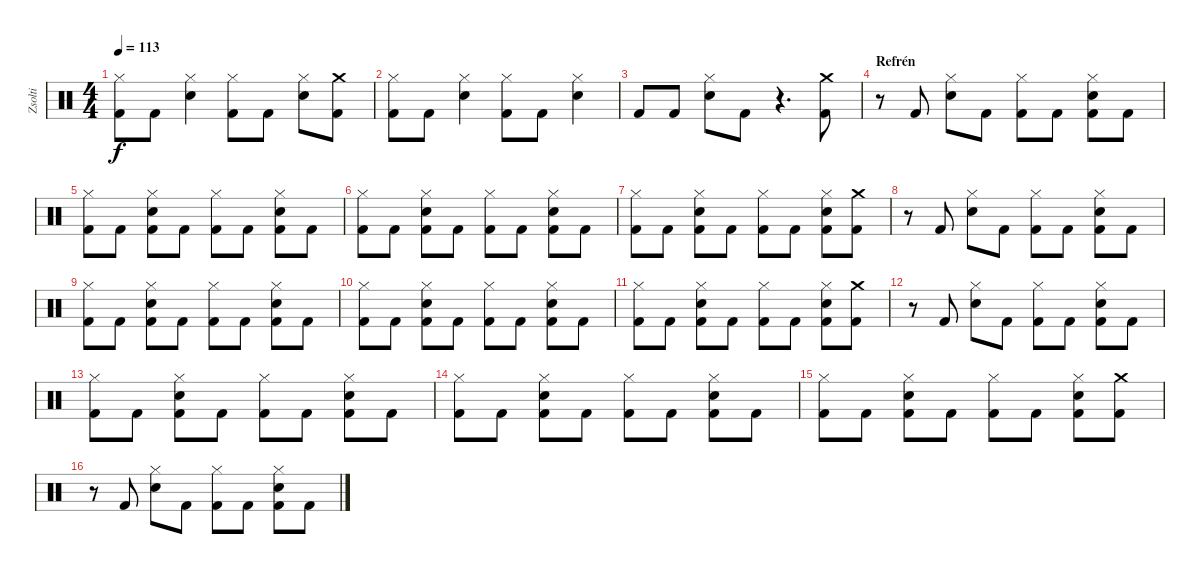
\track ("Zsolti" "Zsolti") {instrument percussion}
\staff {score}
\articulation defaults
\ts (4 4)
\tempo 113
\clef neutral
\ks c
("Hi-Hat (closed)" "Kick (hit) 2").8{dy f} "Kick (hit) 2".8 ("Hi-Hat (closed)" "Snare (hit) 2").4 ("Hi-Hat (closed)" "Kick (hit) 2").8 "Kick (hit) 2".8 ("Hi-Hat (closed)" "Snare (hit) 2").8 ("Crash medium (hit)" "Kick (hit) 2").8 |
("Hi-Hat (closed)" "Kick (hit) 2").8 "Kick (hit) 2".8 ("Hi-Hat (closed)" "Snare (hit) 2").4 ("Hi-Hat (closed)" "Kick (hit) 2").8 "Kick (hit) 2".8 ("Hi-Hat (closed)" "Snare (hit) 2").4 |
"Kick (hit) 2".8 "Kick (hit) 2".8 ("Hi-Hat (closed)" "Snare (hit) 2").8 "Kick (hit) 2".8 r.4{d} ("Crash medium (hit)" "Kick (hit) 2").8 |
\section ("" "Refrén")
r.8 "Kick (hit) 2".8 ("Hi-Hat (closed)" "Snare (hit) 2").8 "Kick (hit) 2".8 ("Hi-Hat (closed)" "Kick (hit) 2").8 "Kick (hit) 2".8 ("Hi-Hat (closed)" "Snare (hit) 2" "Kick (hit) 2").8 "Kick (hit) 2".8 |
("Hi-Hat (closed)" "Kick (hit) 2").8 "Kick (hit) 2".8 ("Hi-Hat (closed)" "Snare (hit) 2" "Kick (hit) 2").8 "Kick (hit) 2".8 ("Hi-Hat (closed)" "Kick (hit) 2").8 "Kick (hit) 2".8 ("Hi-Hat (closed)" "Snare (hit) 2" "Kick (hit) 2").8 "Kick (hit) 2".8 |
("Hi-Hat (closed)" "Kick (hit) 2").8 "Kick (hit) 2".8 ("Hi-Hat (closed)" "Snare (hit) 2" "Kick (hit) 2").8 "Kick (hit) 2".8 ("Hi-Hat (closed)" "Kick (hit) 2").8 "Kick (hit) 2".8 ("Hi-Hat (closed)" "Snare (hit) 2" "Kick (hit) 2").8 "Kick (hit) 2".8 |
("Hi-Hat (closed)" "Kick (hit) 2").8 "Kick (hit) 2".8 ("Hi-Hat (closed)" "Snare (hit) 2" "Kick (hit) 2").8 "Kick (hit) 2".8 ("Hi-Hat (closed)" "Kick (hit) 2").8 "Kick (hit) 2".8 ("Hi-Hat (closed)" "Snare (hit) 2" "Kick (hit) 2").8 ("Crash medium (hit)" "Kick (hit) 2").8 |
r.8 "Kick (hit) 2".8 ("Hi-Hat (closed)" "Snare (hit) 2").8 "Kick (hit) 2".8 ("Hi-Hat (closed)" "Kick (hit) 2").8 "Kick (hit) 2".8 ("Hi-Hat (closed)" "Snare (hit) 2" "Kick (hit) 2").8 "Kick (hit) 2".8 |
("Hi-Hat (closed)" "Kick (hit) 2").8 "Kick (hit) 2".8 ("Hi-Hat (closed)" "Snare (hit) 2" "Kick (hit) 2").8 "Kick (hit) 2".8 ("Hi-Hat (closed)" "Kick (hit) 2").8 "Kick (hit) 2".8 ("Hi-Hat (closed)" "Snare (hit) 2" "Kick (hit) 2").8 "Kick (hit) 2".8 |
("Hi-Hat (closed)" "Kick (hit) 2").8 "Kick (hit) 2".8 ("Hi-Hat (closed)" "Snare (hit) 2" "Kick (hit) 2").8 "Kick (hit) 2".8 ("Hi-Hat (closed)" "Kick (hit) 2").8 "Kick (hit) 2".8 ("Hi-Hat (closed)" "Snare (hit) 2" "Kick (hit) 2").8 "Kick (hit) 2".8 |
("Hi-Hat (closed)" "Kick (hit) 2").8 "Kick (hit) 2".8 ("Hi-Hat (closed)" "Snare (hit) 2" "Kick (hit) 2").8 "Kick (hit) 2".8 ("Hi-Hat (closed)" "Kick (hit) 2").8 "Kick (hit) 2".8 ("Hi-Hat (closed)" "Snare (hit) 2" "Kick (hit) 2").8 ("Crash medium (hit)" "Kick (hit) 2").8 |
r.8 "Kick (hit) 2".8 ("Hi-Hat (closed)" "Snare (hit) 2").8 "Kick (hit) 2".8 ("Hi-Hat (closed)" "Kick (hit) 2").8 "Kick (hit) 2".8 ("Hi-Hat (closed)" "Snare (hit) 2" "Kick (hit) 2").8 "Kick (hit) 2".8 |
("Hi-Hat (closed)" "Kick (hit) 2").8 "Kick (hit) 2".8 ("Hi-Hat (closed)" "Snare (hit) 2" "Kick (hit) 2").8 "Kick (hit) 2".8 ("Hi-Hat (closed)" "Kick (hit) 2").8 "Kick (hit) 2".8 ("Hi-Hat (closed)" "Snare (hit) 2" "Kick (hit) 2").8 "Kick (hit) 2".8 |
("Hi-Hat (closed)" "Kick (hit) 2").8 "Kick (hit) 2".8 ("Hi-Hat (closed)" "Snare (hit) 2" "Kick (hit) 2").8 "Kick (hit) 2".8 ("Hi-Hat (closed)" "Kick (hit) 2").8 "Kick (hit) 2".8 ("Hi-Hat (closed)" "Snare (hit) 2" "Kick (hit) 2").8 "Kick (hit) 2".8 |
("Hi-Hat (closed)" "Kick (hit) 2").8 "Kick (hit) 2".8 ("Hi-Hat (closed)" "Snare (hit) 2" "Kick (hit) 2").8 "Kick (hit) 2".8 ("Hi-Hat (closed)" "Kick (hit) 2").8 "Kick (hit) 2".8 ("Hi-Hat (closed)" "Snare (hit) 2" "Kick (hit) 2").8 ("Crash medium (hit)" "Kick (hit) 2").8 |
r.8 "Kick (hit) 2".8 ("Hi-Hat (closed)" "Snare (hit) 2").8 "Kick (hit) 2".8 ("Hi-Hat (closed)" "Kick (hit) 2").8 "Kick (hit) 2".8 ("Hi-Hat (closed)" "Snare (hit) 2" "Kick (hit) 2").8 "Kick (hit) 2".8
